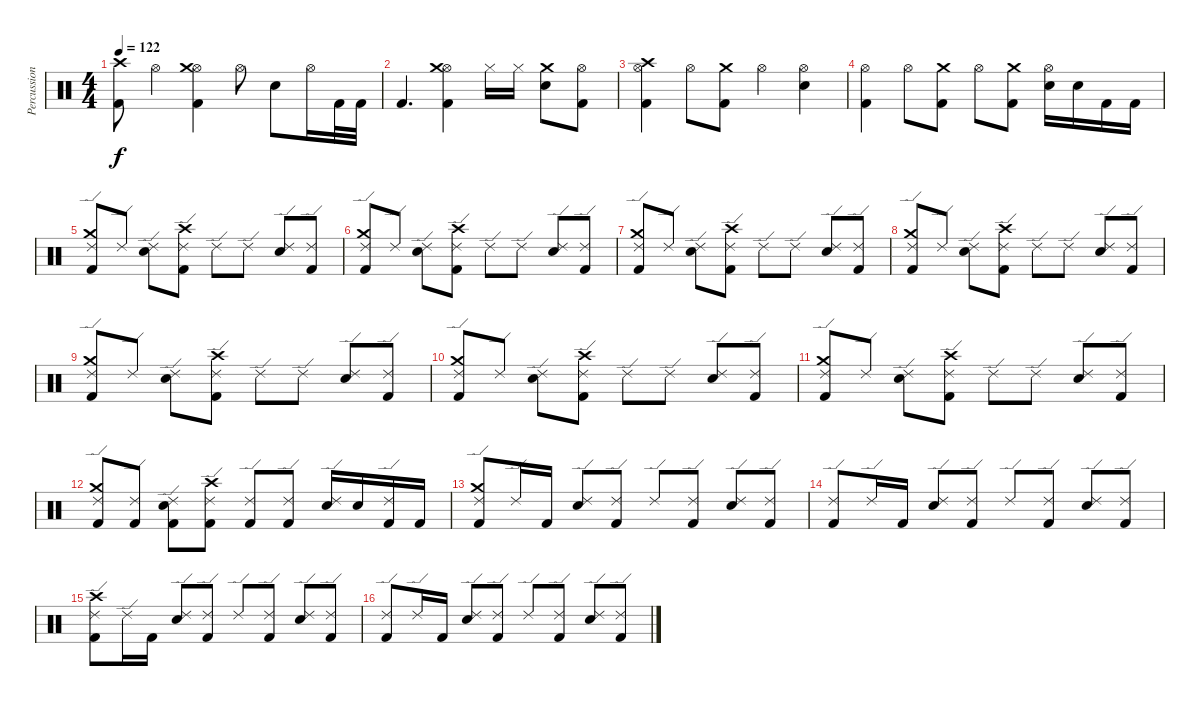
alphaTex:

\track ("Percussion" "Percussion") {instrument percussion}
\staff {score}
\articulation defaults
\ts (4 4)
\tempo 122
\clef neutral
\ks c
("Crash high (hit)" "Kick (hit) 2").8{dy f} "Hi-Hat (open)".4 ("Hi-Hat (open)" "Crash medium (hit)" "Kick (hit) 2").4 "Hi-Hat (open)".8 "Electric Snare (hit)".8 "Hi-Hat (open)".16 "Kick (hit) 2".32 "Kick (hit) 2".32 |
"Kick (hit) 2".4{d} ("Hi-Hat (open)" "Crash medium (hit)" "Kick (hit) 2").4 "Hi-Hat (closed)".16 "Hi-Hat (closed)".16 ("Crash medium (hit)" "Electric Snare (hit)").8 ("Hi-Hat (open)" "Kick (hit) 2").8 |
("Hi-Hat (open)" "Crash high (hit)" "Kick (hit) 2").4 "Hi-Hat (open)".8 ("Crash medium (hit)" "Kick (hit) 2").8 "Hi-Hat (open)".4 ("Hi-Hat (open)" "Electric Snare (hit)").4 |
("Hi-Hat (open)" "Kick (hit) 2").4 "Hi-Hat (open)".8 ("Crash medium (hit)" "Kick (hit) 2").8 "Hi-Hat (open)".8 ("Crash medium (hit)" "Kick (hit) 2").8 ("Hi-Hat (open)" "Electric Snare (hit)").16 "Electric Snare (hit)".16 "Kick (hit) 2".16 "Kick (hit) 2".16 |
("Ride (edge) 2" "Crash medium (hit)" "Kick (hit) 2").8 "Ride (edge) 2".8 ("Ride (edge) 2" "Electric Snare (hit)").8 ("Ride (edge) 2" "Crash high (hit)" "Kick (hit) 2").8 "Ride (edge) 2".8 "Ride (edge) 2".8 ("Ride (edge) 2" "Electric Snare (hit)").8 ("Ride (edge) 2" "Kick (hit) 2").8 |
("Ride (edge) 2" "Crash medium (hit)" "Kick (hit) 2").8 "Ride (edge) 2".8 ("Ride (edge) 2" "Electric Snare (hit)").8 ("Ride (edge) 2" "Crash high (hit)" "Kick (hit) 2").8 "Ride (edge) 2".8 "Ride (edge) 2".8 ("Ride (edge) 2" "Electric Snare (hit)").8 ("Ride (edge) 2" "Kick (hit) 2").8 |
("Ride (edge) 2" "Crash medium (hit)" "Kick (hit) 2").8 "Ride (edge) 2".8 ("Ride (edge) 2" "Electric Snare (hit)").8 ("Ride (edge) 2" "Crash high (hit)" "Kick (hit) 2").8 "Ride (edge) 2".8 "Ride (edge) 2".8 ("Ride (edge) 2" "Electric Snare (hit)").8 ("Ride (edge) 2" "Kick (hit) 2").8 |
("Ride (edge) 2" "Crash medium (hit)" "Kick (hit) 2").8 "Ride (edge) 2".8 ("Ride (edge) 2" "Electric Snare (hit)").8 ("Ride (edge) 2" "Crash high (hit)" "Kick (hit) 2").8 "Ride (edge) 2".8 "Ride (edge) 2".8 ("Ride (edge) 2" "Electric Snare (hit)").8 ("Ride (edge) 2" "Kick (hit) 2").8 |
("Ride (edge) 2" "Crash medium (hit)" "Kick (hit) 2").8 "Ride (edge) 2".8 ("Ride (edge) 2" "Electric Snare (hit)").8 ("Ride (edge) 2" "Crash high (hit)" "Kick (hit) 2").8 "Ride (edge) 2".8 "Ride (edge) 2".8 ("Ride (edge) 2" "Electric Snare (hit)").8 ("Ride (edge) 2" "Kick (hit) 2").8 |
("Ride (edge) 2" "Crash medium (hit)" "Kick (hit) 2").8 "Ride (edge) 2".8 ("Ride (edge) 2" "Electric Snare (hit)").8 ("Ride (edge) 2" "Crash high (hit)" "Kick (hit) 2").8 "Ride (edge) 2".8 "Ride (edge) 2".8 ("Ride (edge) 2" "Electric Snare (hit)").8 ("Ride (edge) 2" "Kick (hit) 2").8 |
("Ride (edge) 2" "Crash medium (hit)" "Kick (hit) 2").8 "Ride (edge) 2".8 ("Ride (edge) 2" "Electric Snare (hit)").8 ("Ride (edge) 2" "Crash high (hit)" "Kick (hit) 2").8 "Ride (edge) 2".8 "Ride (edge) 2".8 ("Ride (edge) 2" "Electric Snare (hit)").8 ("Ride (edge) 2" "Kick (hit) 2").8 |
("Ride (edge) 2" "Crash medium (hit)" "Kick (hit) 2").8 ("Ride (edge) 2" "Kick (hit) 2").8 ("Ride (edge) 2" "Electric Snare (hit)" "Kick (hit) 2").8 ("Ride (edge) 2" "Crash high (hit)" "Kick (hit) 2").8 ("Ride (edge) 2" "Kick (hit) 2").8 ("Ride (edge) 2" "Kick (hit) 2").8 ("Ride (edge) 2" "Electric Snare (hit)").16 "Electric Snare (hit)".16 ("Ride (edge) 2" "Kick (hit) 2").16 "Kick (hit) 2".16 |
("Ride (edge) 2" "Crash medium (hit)" "Kick (hit) 2").8 "Ride (edge) 2".16 "Kick (hit) 2".16 ("Ride (edge) 2" "Electric Snare (hit)").8 ("Ride (edge) 2" "Kick (hit) 2").8 "Ride (edge) 2".8 ("Ride (edge) 2" "Kick (hit) 2").8 ("Ride (edge) 2" "Electric Snare (hit)").8 ("Ride (edge) 2" "Kick (hit) 2").8 |
("Ride (edge) 2" "Kick (hit) 2").8 "Ride (edge) 2".16 "Kick (hit) 2".16 ("Ride (edge) 2" "Electric Snare (hit)").8 ("Ride (edge) 2" "Kick (hit) 2").8 "Ride (edge) 2".8 ("Ride (edge) 2" "Kick (hit) 2").8 ("Ride (edge) 2" "Electric Snare (hit)").8 ("Ride (edge) 2" "Kick (hit) 2").8 |
("Ride (edge) 2" "Crash high (hit)" "Kick (hit) 2").8 "Ride (edge) 2".16 "Kick (hit) 2".16 ("Ride (edge) 2" "Electric Snare (hit)").8 ("Ride (edge) 2" "Kick (hit) 2").8 "Ride (edge) 2".8 ("Ride (edge) 2" "Kick (hit) 2").8 ("Ride (edge) 2" "Electric Snare (hit)").8 ("Ride (edge) 2" "Kick (hit) 2").8 |
("Ride (edge) 2" "Kick (hit) 2").8 "Ride (edge) 2".16 "Kick (hit) 2".16 ("Ride (edge) 2" "Electric Snare (hit)").8 ("Ride (edge) 2" "Kick (hit) 2").8 "Ride (edge) 2".8 ("Ride (edge) 2" "Kick (hit) 2").8 ("Ride (edge) 2" "Electric Snare (hit)").8 ("Ride (edge) 2" "Kick (hit) 2").8
